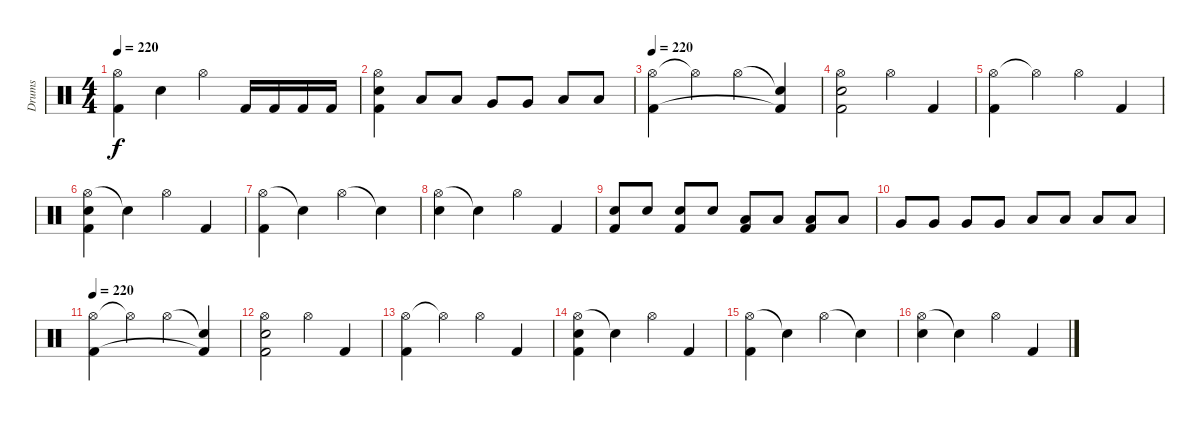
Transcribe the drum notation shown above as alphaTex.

\track ("Drums" "Drums") {instrument percussion}
\staff {score}
\articulation defaults
\ts (4 4)
\tempo 220
\clef neutral
\ks c
("Hi-Hat (open)" "Kick (hit) 2").4{dy f} "Snare (hit) 2".4 "Hi-Hat (open)".4 "Kick (hit) 2".16 "Kick (hit) 2".16 "Kick (hit) 2".16 "Kick (hit) 2".16 |
("Hi-Hat (open)" "Snare (hit) 2" "Kick (hit) 2").4 "Low Tom (hit)".8 "Low Tom (hit)".8 "Very Low Tom (hit)".8 "Very Low Tom (hit)".8 "Low Floor Tom (hit)".8 "Low Floor Tom (hit)".8 |
\tempo 220
("Hi-Hat (open)" "Kick (hit) 2").4 "Hi-Hat (open)"{t}.4 "Hi-Hat (open)".4 ("Snare (hit)"{t} "Kick (hit) 2"{t}).4 |
("Hi-Hat (open)" "Snare (hit) 2" "Kick (hit) 2").2 "Hi-Hat (open)".4 "Kick (hit) 2".4 |
("Hi-Hat (open)" "Kick (hit) 2").4 "Hi-Hat (open)"{t}.4 "Hi-Hat (open)".4 "Kick (hit) 2".4 |
("Hi-Hat (open)" "Snare (hit) 2" "Kick (hit) 2").4 "Snare (hit)"{t}.4 "Hi-Hat (open)".4 "Kick (hit) 2".4 |
("Hi-Hat (open)" "Kick (hit) 2").4 "Snare (hit)"{t}.4 "Hi-Hat (open)".4 "Snare (hit)"{t}.4 |
("Hi-Hat (open)" "Snare (hit) 2").4 "Snare (hit)"{t}.4 "Hi-Hat (open)".4 "Kick (hit) 2".4 |
("Snare (hit) 2" "Kick (hit) 2").8 "Snare (hit) 2".8 ("Snare (hit) 2" "Kick (hit) 2").8 "Snare (hit) 2".8 ("Low Tom (hit)" "Kick (hit) 2").8 "Low Tom (hit)".8 ("Low Tom (hit)" "Kick (hit) 2").8 "Low Tom (hit)".8 |
"Very Low Tom (hit)".8 "Very Low Tom (hit)".8 "Very Low Tom (hit)".8 "Very Low Tom (hit)".8 "Low Floor Tom (hit)".8 "Low Floor Tom (hit)".8 "Low Floor Tom (hit)".8 "Low Floor Tom (hit)".8 |
\tempo 250
\tempo 220
("Hi-Hat (open)" "Kick (hit) 2").4 "Hi-Hat (open)"{t}.4 "Hi-Hat (open)".4 ("Snare (hit)"{t} "Kick (hit) 2"{t}).4 |
("Hi-Hat (open)" "Snare (hit) 2" "Kick (hit) 2").2 "Hi-Hat (open)".4 "Kick (hit) 2".4 |
("Hi-Hat (open)" "Kick (hit) 2").4 "Hi-Hat (open)"{t}.4 "Hi-Hat (open)".4 "Kick (hit) 2".4 |
("Hi-Hat (open)" "Snare (hit) 2" "Kick (hit) 2").4 "Snare (hit)"{t}.4 "Hi-Hat (open)".4 "Kick (hit) 2".4 |
("Hi-Hat (open)" "Kick (hit) 2").4 "Snare (hit)"{t}.4 "Hi-Hat (open)".4 "Snare (hit)"{t}.4 |
("Hi-Hat (open)" "Snare (hit) 2").4 "Snare (hit)"{t}.4 "Hi-Hat (open)".4 "Kick (hit) 2".4
